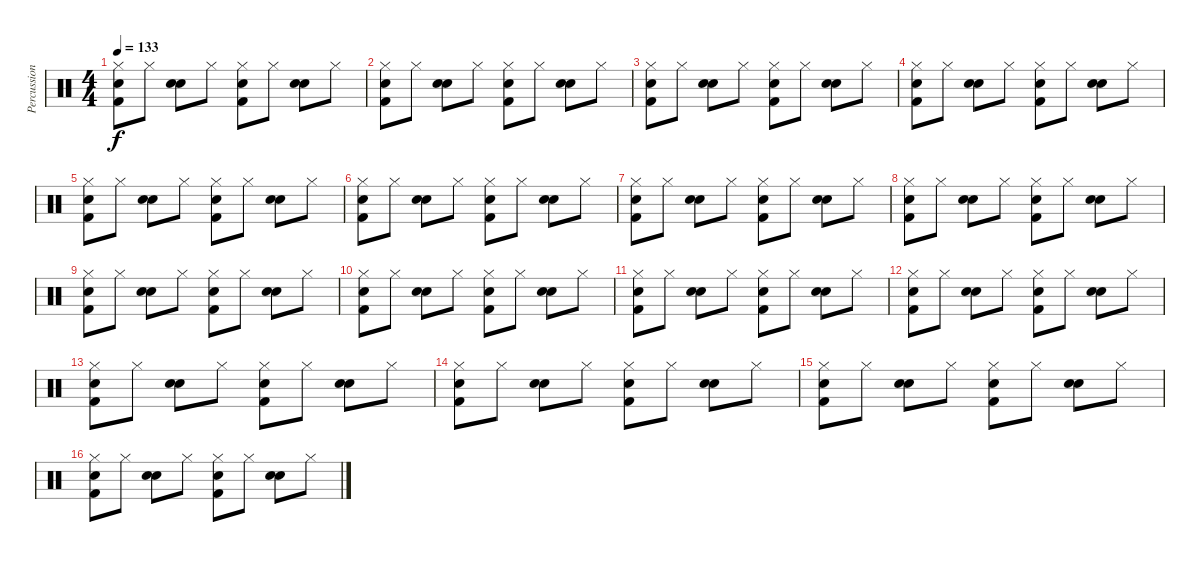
\track ("Percussions" "Percussion") {instrument percussion}
\staff {score}
\articulation defaults
\ts (4 4)
\tempo 133
\clef neutral
\ks c
("Snare (hit) 2" "Kick (hit) 2" "Hi-Hat (closed)").8{dy f} "Hi-Hat (closed)".8 ("Electric Snare (hit)" "Electric Snare (hit)").8 "Hi-Hat (closed)".8 ("Snare (hit) 2" "Kick (hit) 2" "Hi-Hat (closed)").8 "Hi-Hat (closed)".8 ("Electric Snare (hit)" "Electric Snare (hit)").8 "Hi-Hat (closed)".8 |
("Snare (hit) 2" "Kick (hit) 2" "Hi-Hat (closed)").8 "Hi-Hat (closed)".8 ("Electric Snare (hit)" "Electric Snare (hit)").8 "Hi-Hat (closed)".8 ("Snare (hit) 2" "Kick (hit) 2" "Hi-Hat (closed)").8 "Hi-Hat (closed)".8 ("Electric Snare (hit)" "Electric Snare (hit)").8 "Hi-Hat (closed)".8 |
("Snare (hit) 2" "Kick (hit) 2" "Hi-Hat (closed)").8 "Hi-Hat (closed)".8 ("Electric Snare (hit)" "Electric Snare (hit)").8 "Hi-Hat (closed)".8 ("Snare (hit) 2" "Kick (hit) 2" "Hi-Hat (closed)").8 "Hi-Hat (closed)".8 ("Electric Snare (hit)" "Electric Snare (hit)").8 "Hi-Hat (closed)".8 |
("Snare (hit) 2" "Kick (hit) 2" "Hi-Hat (closed)").8 "Hi-Hat (closed)".8 ("Electric Snare (hit)" "Electric Snare (hit)").8 "Hi-Hat (closed)".8 ("Snare (hit) 2" "Kick (hit) 2" "Hi-Hat (closed)").8 "Hi-Hat (closed)".8 ("Electric Snare (hit)" "Electric Snare (hit)").8 "Hi-Hat (closed)".8 |
("Snare (hit) 2" "Kick (hit) 2" "Hi-Hat (closed)").8 "Hi-Hat (closed)".8 ("Electric Snare (hit)" "Electric Snare (hit)").8 "Hi-Hat (closed)".8 ("Snare (hit) 2" "Kick (hit) 2" "Hi-Hat (closed)").8 "Hi-Hat (closed)".8 ("Electric Snare (hit)" "Electric Snare (hit)").8 "Hi-Hat (closed)".8 |
("Snare (hit) 2" "Kick (hit) 2" "Hi-Hat (closed)").8 "Hi-Hat (closed)".8 ("Electric Snare (hit)" "Electric Snare (hit)").8 "Hi-Hat (closed)".8 ("Snare (hit) 2" "Kick (hit) 2" "Hi-Hat (closed)").8 "Hi-Hat (closed)".8 ("Electric Snare (hit)" "Electric Snare (hit)").8 "Hi-Hat (closed)".8 |
("Snare (hit) 2" "Kick (hit) 2" "Hi-Hat (closed)").8 "Hi-Hat (closed)".8 ("Electric Snare (hit)" "Electric Snare (hit)").8 "Hi-Hat (closed)".8 ("Snare (hit) 2" "Kick (hit) 2" "Hi-Hat (closed)").8 "Hi-Hat (closed)".8 ("Electric Snare (hit)" "Electric Snare (hit)").8 "Hi-Hat (closed)".8 |
("Snare (hit) 2" "Kick (hit) 2" "Hi-Hat (closed)").8 "Hi-Hat (closed)".8 ("Electric Snare (hit)" "Electric Snare (hit)").8 "Hi-Hat (closed)".8 ("Snare (hit) 2" "Kick (hit) 2" "Hi-Hat (closed)").8 "Hi-Hat (closed)".8 ("Electric Snare (hit)" "Electric Snare (hit)").8 "Hi-Hat (closed)".8 |
("Snare (hit) 2" "Kick (hit) 2" "Hi-Hat (closed)").8 "Hi-Hat (closed)".8 ("Electric Snare (hit)" "Electric Snare (hit)").8 "Hi-Hat (closed)".8 ("Snare (hit) 2" "Kick (hit) 2" "Hi-Hat (closed)").8 "Hi-Hat (closed)".8 ("Electric Snare (hit)" "Electric Snare (hit)").8 "Hi-Hat (closed)".8 |
("Snare (hit) 2" "Kick (hit) 2" "Hi-Hat (closed)").8 "Hi-Hat (closed)".8 ("Electric Snare (hit)" "Electric Snare (hit)").8 "Hi-Hat (closed)".8 ("Snare (hit) 2" "Kick (hit) 2" "Hi-Hat (closed)").8 "Hi-Hat (closed)".8 ("Electric Snare (hit)" "Electric Snare (hit)").8 "Hi-Hat (closed)".8 |
("Snare (hit) 2" "Kick (hit) 2" "Hi-Hat (closed)").8 "Hi-Hat (closed)".8 ("Electric Snare (hit)" "Electric Snare (hit)").8 "Hi-Hat (closed)".8 ("Snare (hit) 2" "Kick (hit) 2" "Hi-Hat (closed)").8 "Hi-Hat (closed)".8 ("Electric Snare (hit)" "Electric Snare (hit)").8 "Hi-Hat (closed)".8 |
("Snare (hit) 2" "Kick (hit) 2" "Hi-Hat (closed)").8 "Hi-Hat (closed)".8 ("Electric Snare (hit)" "Electric Snare (hit)").8 "Hi-Hat (closed)".8 ("Snare (hit) 2" "Kick (hit) 2" "Hi-Hat (closed)").8 "Hi-Hat (closed)".8 ("Electric Snare (hit)" "Electric Snare (hit)").8 "Hi-Hat (closed)".8 |
("Snare (hit) 2" "Kick (hit) 2" "Hi-Hat (closed)").8 "Hi-Hat (closed)".8 ("Electric Snare (hit)" "Electric Snare (hit)").8 "Hi-Hat (closed)".8 ("Snare (hit) 2" "Kick (hit) 2" "Hi-Hat (closed)").8 "Hi-Hat (closed)".8 ("Electric Snare (hit)" "Electric Snare (hit)").8 "Hi-Hat (closed)".8 |
("Snare (hit) 2" "Kick (hit) 2" "Hi-Hat (closed)").8 "Hi-Hat (closed)".8 ("Electric Snare (hit)" "Electric Snare (hit)").8 "Hi-Hat (closed)".8 ("Snare (hit) 2" "Kick (hit) 2" "Hi-Hat (closed)").8 "Hi-Hat (closed)".8 ("Electric Snare (hit)" "Electric Snare (hit)").8 "Hi-Hat (closed)".8 |
("Snare (hit) 2" "Kick (hit) 2" "Hi-Hat (closed)").8 "Hi-Hat (closed)".8 ("Electric Snare (hit)" "Electric Snare (hit)").8 "Hi-Hat (closed)".8 ("Snare (hit) 2" "Kick (hit) 2" "Hi-Hat (closed)").8 "Hi-Hat (closed)".8 ("Electric Snare (hit)" "Electric Snare (hit)").8 "Hi-Hat (closed)".8 |
("Snare (hit) 2" "Kick (hit) 2" "Hi-Hat (closed)").8 "Hi-Hat (closed)".8 ("Electric Snare (hit)" "Electric Snare (hit)").8 "Hi-Hat (closed)".8 ("Snare (hit) 2" "Kick (hit) 2" "Hi-Hat (closed)").8 "Hi-Hat (closed)".8 ("Electric Snare (hit)" "Electric Snare (hit)").8 "Hi-Hat (closed)".8
